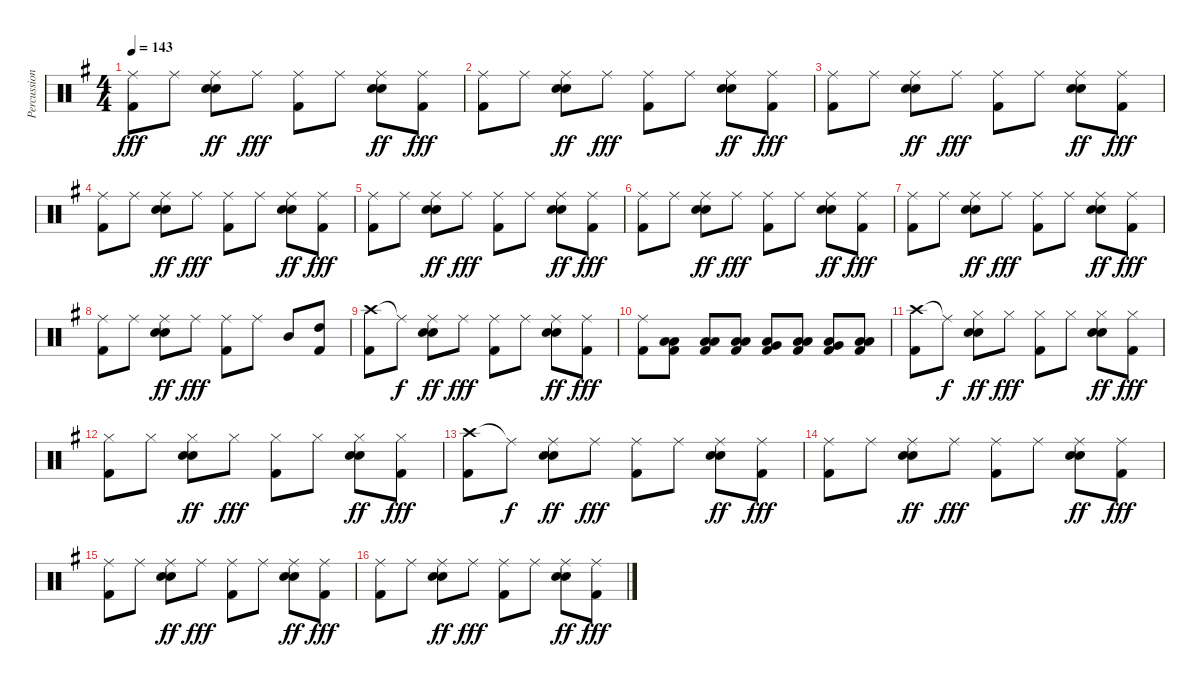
\track ("Percussion" "Percussion") {instrument percussion}
\staff {score}
\articulation defaults
\ts (4 4)
\tempo 143
\clef neutral
\ks g
("Ride (middle)" "Kick (hit) 2").8{dy fff} "Ride (middle)".8 ("Ride (middle)" "Snare (hit) 2" "Electric Snare (hit)").8{dy ff} "Ride (middle)".8{dy fff} ("Ride (middle)" "Kick (hit) 2").8 "Ride (middle)".8 ("Ride (middle)" "Snare (hit) 2" "Electric Snare (hit)").8{dy ff} ("Ride (middle)" "Kick (hit) 2").8{dy fff} |
("Ride (middle)" "Kick (hit) 2").8 "Ride (middle)".8 ("Ride (middle)" "Snare (hit) 2" "Electric Snare (hit)").8{dy ff} "Ride (middle)".8{dy fff} ("Ride (middle)" "Kick (hit) 2").8 "Ride (middle)".8 ("Ride (middle)" "Snare (hit) 2" "Electric Snare (hit)").8{dy ff} ("Ride (middle)" "Kick (hit) 2").8{dy fff} |
("Ride (middle)" "Kick (hit) 2").8 "Ride (middle)".8 ("Ride (middle)" "Snare (hit) 2" "Electric Snare (hit)").8{dy ff} "Ride (middle)".8{dy fff} ("Ride (middle)" "Kick (hit) 2").8 "Ride (middle)".8 ("Ride (middle)" "Snare (hit) 2" "Electric Snare (hit)").8{dy ff} ("Ride (middle)" "Kick (hit) 2").8{dy fff} |
("Ride (middle)" "Kick (hit) 2").8 "Ride (middle)".8 ("Ride (middle)" "Snare (hit) 2" "Electric Snare (hit)").8{dy ff} "Ride (middle)".8{dy fff} ("Ride (middle)" "Kick (hit) 2").8 "Ride (middle)".8 ("Ride (middle)" "Snare (hit) 2" "Electric Snare (hit)").8{dy ff} ("Ride (middle)" "Kick (hit) 2").8{dy fff} |
("Ride (middle)" "Kick (hit) 2").8 "Ride (middle)".8 ("Ride (middle)" "Snare (hit) 2" "Electric Snare (hit)").8{dy ff} "Ride (middle)".8{dy fff} ("Ride (middle)" "Kick (hit) 2").8 "Ride (middle)".8 ("Ride (middle)" "Snare (hit) 2" "Electric Snare (hit)").8{dy ff} ("Ride (middle)" "Kick (hit) 2").8{dy fff} |
("Ride (middle)" "Kick (hit) 2").8 "Ride (middle)".8 ("Ride (middle)" "Snare (hit) 2" "Electric Snare (hit)").8{dy ff} "Ride (middle)".8{dy fff} ("Ride (middle)" "Kick (hit) 2").8 "Ride (middle)".8 ("Ride (middle)" "Snare (hit) 2" "Electric Snare (hit)").8{dy ff} ("Ride (middle)" "Kick (hit) 2").8{dy fff} |
("Ride (middle)" "Kick (hit) 2").8 "Ride (middle)".8 ("Ride (middle)" "Snare (hit) 2" "Electric Snare (hit)").8{dy ff} "Ride (middle)".8{dy fff} ("Ride (middle)" "Kick (hit) 2").8 "Ride (middle)".8 ("Ride (middle)" "Snare (hit) 2" "Electric Snare (hit)").8{dy ff} ("Ride (middle)" "Kick (hit) 2").8{dy fff} |
("Ride (middle)" "Kick (hit) 2").8 "Ride (middle)".8 ("Ride (middle)" "Snare (hit) 2" "Electric Snare (hit)").8{dy ff} "Ride (middle)".8{dy fff} ("Ride (middle)" "Kick (hit) 2").8 "Ride (middle)".8 "Mid Tom (hit)".8 ("High Tom (hit)" "Kick (hit) 2").8 |
("Crash high (hit)" "Kick (hit) 2").8 "Ride (middle)"{t}.8{dy f} ("Ride (middle)" "Snare (hit) 2" "Electric Snare (hit)").8{dy ff} "Ride (middle)".8{dy fff} ("Ride (middle)" "Kick (hit) 2").8 "Ride (middle)".8 ("Ride (middle)" "Snare (hit) 2" "Electric Snare (hit)").8{dy ff} ("Ride (middle)" "Kick (hit) 2").8{dy fff} |
("Ride (middle)" "Kick (hit) 2").8 ("Low Tom (hit)" "Low Floor Tom (hit)" "Kick (hit) 2").8 ("Low Tom (hit)" "Low Floor Tom (hit)" "Kick (hit) 2").8 ("Low Tom (hit)" "Low Floor Tom (hit)" "Kick (hit) 2").8 ("Low Tom (hit)" "Very Low Tom (hit)" "Kick (hit) 2").8 ("Low Tom (hit)" "Low Floor Tom (hit)" "Kick (hit) 2").8 ("Low Tom (hit)" "Very Low Tom (hit)" "Kick (hit) 2").8 ("Low Tom (hit)" "Low Floor Tom (hit)" "Kick (hit) 2").8 |
("Crash high (hit)" "Kick (hit) 2").8 "Ride (middle)"{t}.8{dy f} ("Hi-Hat (closed)" "Snare (hit) 2" "Electric Snare (hit)").8{dy ff} "Hi-Hat (closed)".8{dy fff} ("Hi-Hat (closed)" "Kick (hit) 2").8 "Hi-Hat (closed)".8 ("Hi-Hat (closed)" "Snare (hit) 2" "Electric Snare (hit)").8{dy ff} ("Hi-Hat (closed)" "Kick (hit) 2").8{dy fff} |
("Hi-Hat (closed)" "Kick (hit) 2").8 "Hi-Hat (closed)".8 ("Hi-Hat (closed)" "Snare (hit) 2" "Electric Snare (hit)").8{dy ff} "Hi-Hat (closed)".8{dy fff} ("Hi-Hat (closed)" "Kick (hit) 2").8 "Hi-Hat (closed)".8 ("Hi-Hat (closed)" "Snare (hit) 2" "Electric Snare (hit)").8{dy ff} ("Hi-Hat (closed)" "Kick (hit) 2").8{dy fff} |
("Crash high (hit)" "Kick (hit) 2").8 "Ride (middle)"{t}.8{dy f} ("Ride (middle)" "Snare (hit) 2" "Electric Snare (hit)").8{dy ff} "Ride (middle)".8{dy fff} ("Ride (middle)" "Kick (hit) 2").8 "Ride (middle)".8 ("Ride (middle)" "Snare (hit) 2" "Electric Snare (hit)").8{dy ff} ("Ride (middle)" "Kick (hit) 2").8{dy fff} |
("Ride (middle)" "Kick (hit) 2").8 "Ride (middle)".8 ("Ride (middle)" "Snare (hit) 2" "Electric Snare (hit)").8{dy ff} "Ride (middle)".8{dy fff} ("Ride (middle)" "Kick (hit) 2").8 "Ride (middle)".8 ("Ride (middle)" "Snare (hit) 2" "Electric Snare (hit)").8{dy ff} ("Ride (middle)" "Kick (hit) 2").8{dy fff} |
("Ride (middle)" "Kick (hit) 2").8 "Ride (middle)".8 ("Ride (middle)" "Snare (hit) 2" "Electric Snare (hit)").8{dy ff} "Ride (middle)".8{dy fff} ("Ride (middle)" "Kick (hit) 2").8 "Ride (middle)".8 ("Ride (middle)" "Snare (hit) 2" "Electric Snare (hit)").8{dy ff} ("Ride (middle)" "Kick (hit) 2").8{dy fff} |
("Ride (middle)" "Kick (hit) 2").8 "Ride (middle)".8 ("Ride (middle)" "Snare (hit) 2" "Electric Snare (hit)").8{dy ff} "Ride (middle)".8{dy fff} ("Ride (middle)" "Kick (hit) 2").8 "Ride (middle)".8 ("Ride (middle)" "Snare (hit) 2" "Electric Snare (hit)").8{dy ff} ("Ride (middle)" "Kick (hit) 2").8{dy fff}
